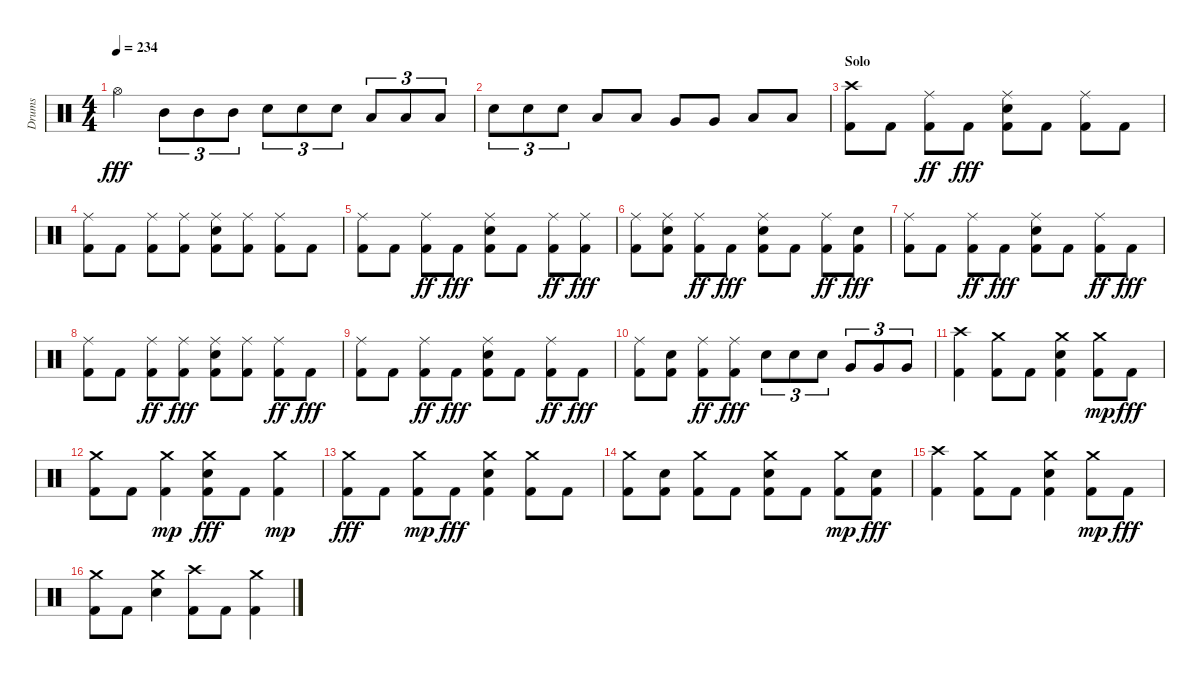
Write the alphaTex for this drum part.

\track ("Drums" "Drums") {instrument percussion}
\staff {score}
\articulation defaults
\ts (4 4)
\tempo 234
\clef neutral
\ks aminor "Hi-Hat (open)".4{dy fff} "Mid Tom (hit)".8{tu (3 2)} "Mid Tom (hit)".8{tu (3 2)} "Mid Tom (hit)".8{tu (3 2)} "Snare (hit) 2".8{tu (3 2)} "Snare (hit) 2".8{tu (3 2)} "Snare (hit) 2".8{tu (3 2)} "Low Tom (hit)".8{tu (3 2)} "Low Tom (hit)".8{tu (3 2)} "Low Tom (hit)".8{tu (3 2)}
|
"Snare (hit) 2".8{tu (3 2)} "Snare (hit) 2".8{tu (3 2)} "Snare (hit) 2".8{tu (3 2)} "Low Tom (hit)".8 "Low Tom (hit)".8 "Very Low Tom (hit)".8 "Very Low Tom (hit)".8 "Low Floor Tom (hit)".8 "Low Floor Tom (hit)".8 |
\section ("" "Solo")
("Crash high (hit)" "Kick (hit) 2").8 "Kick (hit) 2".8 ("Kick (hit) 2" "Ride (middle)").8{dy ff} "Kick (hit) 2".8{dy fff} ("Snare (hit) 2" "Kick (hit) 2" "Ride (middle)").8 "Kick (hit) 2".8 ("Kick (hit) 2" "Ride (middle)").8 "Kick (hit) 2".8 |
("Ride (middle)" "Kick (hit) 2").8 "Kick (hit) 2".8 ("Ride (middle)" "Kick (hit) 2").8 ("Kick (hit) 2" "Ride (middle)").8 ("Kick (hit) 2" "Ride (middle)" "Snare (hit) 2").8 ("Kick (hit) 2" "Ride (middle)").8 ("Kick (hit) 2" "Ride (middle)").8 "Kick (hit) 2".8 |
("Kick (hit) 2" "Ride (middle)").8 "Kick (hit) 2".8 ("Ride (middle)" "Kick (hit) 2").8{dy ff} "Kick (hit) 2".8{dy fff} ("Ride (middle)" "Snare (hit) 2" "Kick (hit) 2").8 "Kick (hit) 2".8 ("Kick (hit) 2" "Ride (middle)").8{dy ff} ("Ride (middle)" "Kick (hit) 2").8{dy fff} |
("Kick (hit) 2" "Ride (middle)").8 ("Kick (hit) 2" "Ride (middle)" "Snare (hit) 2").8 ("Kick (hit) 2" "Ride (middle)").8{dy ff} "Kick (hit) 2".8{dy fff} ("Ride (middle)" "Snare (hit) 2" "Kick (hit) 2").8 "Kick (hit) 2".8 ("Ride (middle)" "Kick (hit) 2").8{dy ff} ("Kick (hit) 2" "Snare (hit) 2").8{dy fff} |
("Kick (hit) 2" "Ride (middle)").8 "Kick (hit) 2".8 ("Kick (hit) 2" "Ride (middle)").8{dy ff} "Kick (hit) 2".8{dy fff} ("Kick (hit) 2" "Snare (hit) 2" "Ride (middle)").8 "Kick (hit) 2".8 ("Ride (middle)" "Kick (hit) 2").8{dy ff} "Kick (hit) 2".8{dy fff} |
("Kick (hit) 2" "Ride (middle)").8 "Kick (hit) 2".8 ("Ride (middle)" "Kick (hit) 2").8{dy ff} ("Kick (hit) 2" "Ride (middle)").8{dy fff} ("Kick (hit) 2" "Snare (hit) 2" "Ride (middle)").8 ("Ride (middle)" "Kick (hit) 2").8 ("Kick (hit) 2" "Ride (middle)").8{dy ff} "Kick (hit) 2".8{dy fff} |
("Ride (middle)" "Kick (hit) 2").8 "Kick (hit) 2".8 ("Ride (middle)" "Kick (hit) 2").8{dy ff} "Kick (hit) 2".8{dy fff} ("Ride (middle)" "Kick (hit) 2" "Snare (hit) 2").8 "Kick (hit) 2".8 ("Kick (hit) 2" "Ride (middle)").8{dy ff} "Kick (hit) 2".8{dy fff} |
("Kick (hit) 2" "Ride (middle)").8 ("Kick (hit) 2" "Snare (hit) 2").8 ("Ride (middle)" "Kick (hit) 2").8{dy ff} ("Kick (hit) 2" "Ride (middle)").8{dy fff} "Snare (hit) 2".8{tu (3 2)} "Snare (hit) 2".8{tu (3 2)} "Snare (hit) 2".8{tu (3 2)} "Very Low Tom (hit)".8{tu (3 2)} "Very Low Tom (hit)".8{tu (3 2)} "Very Low Tom (hit)".8{tu (3 2)} |
("Kick (hit) 2" "Crash high (hit)").4 ("Crash medium (hit)" "Kick (hit) 2").8 "Kick (hit) 2".8 ("Snare (hit) 2" "Crash medium (hit)" "Kick (hit) 2").4 ("Kick (hit) 2" "Crash medium (hit)").8{dy mp} "Kick (hit) 2".8{dy fff} |
("Kick (hit) 2" "Crash medium (hit)").8 "Kick (hit) 2".8 ("Kick (hit) 2" "Crash medium (hit)").4{dy mp} ("Kick (hit) 2" "Crash medium (hit)" "Snare (hit) 2").8{dy fff} "Kick (hit) 2".8 ("Crash medium (hit)" "Kick (hit) 2").4{dy mp} |
("Crash medium (hit)" "Kick (hit) 2").8{dy fff} "Kick (hit) 2".8 ("Crash medium (hit)" "Kick (hit) 2").8{dy mp} "Kick (hit) 2".8{dy fff} ("Crash medium (hit)" "Kick (hit) 2" "Snare (hit) 2").4 ("Kick (hit) 2" "Crash medium (hit)").8 "Kick (hit) 2".8 |
("Crash medium (hit)" "Kick (hit) 2").8 ("Snare (hit) 2" "Kick (hit) 2").8 ("Kick (hit) 2" "Crash medium (hit)").8 "Kick (hit) 2".8 ("Crash medium (hit)" "Snare (hit) 2" "Kick (hit) 2").8 "Kick (hit) 2".8 ("Crash medium (hit)" "Kick (hit) 2").8{dy mp} ("Snare (hit) 2" "Kick (hit) 2").8{dy fff} |
("Kick (hit) 2" "Crash high (hit)").4 ("Kick (hit) 2" "Crash medium (hit)").8 "Kick (hit) 2".8 ("Crash medium (hit)" "Snare (hit) 2" "Kick (hit) 2").4 ("Crash medium (hit)" "Kick (hit) 2").8{dy mp} "Kick (hit) 2".8{dy fff} |
("Kick (hit) 2" "Crash medium (hit)").8 "Kick (hit) 2".8 ("Crash medium (hit)" "Snare (hit) 2").4 ("Kick (hit) 2" "Crash high (hit)").8 "Kick (hit) 2".8 ("Crash medium (hit)" "Kick (hit) 2").4
